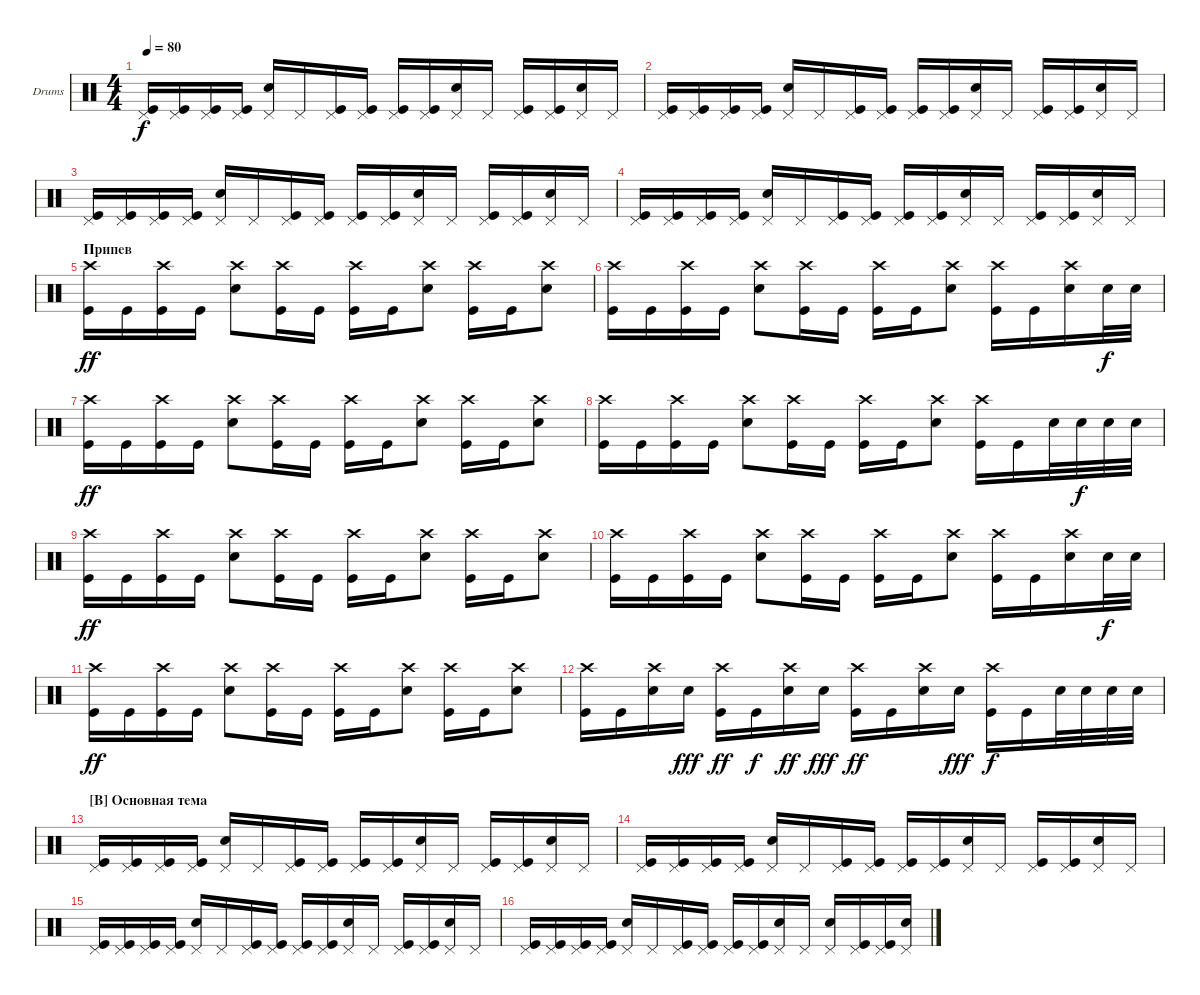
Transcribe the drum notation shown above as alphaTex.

\defaultSystemsLayout 4
\bracketExtendMode groupsimilarinstruments
\firstSystemTrackNameOrientation horizontal
\otherSystemsTrackNameOrientation horizontal
\track ("Drumkit" "Drums") {mute instrument percussion}
\staff {score}
\articulation defaults
\ts (4 4)
\tempo 80
\clef neutral
\ks c
("Pedal Hi-Hat (hit)" "Kick (hit)").16{dy f} ("Pedal Hi-Hat (hit)" "Kick (hit)").16 ("Pedal Hi-Hat (hit)" "Kick (hit)").16 ("Pedal Hi-Hat (hit)" "Kick (hit)").16 ("Pedal Hi-Hat (hit)" "Snare (hit) 2").16 "Pedal Hi-Hat (hit)".16 ("Pedal Hi-Hat (hit)" "Kick (hit)").16 ("Pedal Hi-Hat (hit)" "Kick (hit)").16 ("Pedal Hi-Hat (hit)" "Kick (hit)").16 ("Pedal Hi-Hat (hit)" "Kick (hit)").16 ("Pedal Hi-Hat (hit)" "Snare (hit) 2").16 "Pedal Hi-Hat (hit)".16 ("Pedal Hi-Hat (hit)" "Kick (hit)").16 ("Pedal Hi-Hat (hit)" "Kick (hit)").16 ("Pedal Hi-Hat (hit)" "Snare (hit) 2").16 "Pedal Hi-Hat (hit)".16 |
("Pedal Hi-Hat (hit)" "Kick (hit)").16 ("Pedal Hi-Hat (hit)" "Kick (hit)").16 ("Pedal Hi-Hat (hit)" "Kick (hit)").16 ("Pedal Hi-Hat (hit)" "Kick (hit)").16 ("Pedal Hi-Hat (hit)" "Snare (hit) 2").16 "Pedal Hi-Hat (hit)".16 ("Pedal Hi-Hat (hit)" "Kick (hit)").16 ("Pedal Hi-Hat (hit)" "Kick (hit)").16 ("Pedal Hi-Hat (hit)" "Kick (hit)").16 ("Pedal Hi-Hat (hit)" "Kick (hit)").16 ("Pedal Hi-Hat (hit)" "Snare (hit) 2").16 "Pedal Hi-Hat (hit)".16 ("Pedal Hi-Hat (hit)" "Kick (hit)").16 ("Pedal Hi-Hat (hit)" "Kick (hit)").16 ("Pedal Hi-Hat (hit)" "Snare (hit) 2").16 "Pedal Hi-Hat (hit)".16 |
("Pedal Hi-Hat (hit)" "Kick (hit)").16 ("Pedal Hi-Hat (hit)" "Kick (hit)").16 ("Pedal Hi-Hat (hit)" "Kick (hit)").16 ("Pedal Hi-Hat (hit)" "Kick (hit)").16 ("Pedal Hi-Hat (hit)" "Snare (hit) 2").16 "Pedal Hi-Hat (hit)".16 ("Pedal Hi-Hat (hit)" "Kick (hit)").16 ("Pedal Hi-Hat (hit)" "Kick (hit)").16 ("Pedal Hi-Hat (hit)" "Kick (hit)").16 ("Pedal Hi-Hat (hit)" "Kick (hit)").16 ("Pedal Hi-Hat (hit)" "Snare (hit) 2").16 "Pedal Hi-Hat (hit)".16 ("Pedal Hi-Hat (hit)" "Kick (hit)").16 ("Pedal Hi-Hat (hit)" "Kick (hit)").16 ("Pedal Hi-Hat (hit)" "Snare (hit) 2").16 "Pedal Hi-Hat (hit)".16 |
("Pedal Hi-Hat (hit)" "Kick (hit)").16 ("Pedal Hi-Hat (hit)" "Kick (hit)").16 ("Pedal Hi-Hat (hit)" "Kick (hit)").16 ("Pedal Hi-Hat (hit)" "Kick (hit)").16 ("Pedal Hi-Hat (hit)" "Snare (hit) 2").16 "Pedal Hi-Hat (hit)".16 ("Pedal Hi-Hat (hit)" "Kick (hit)").16 ("Pedal Hi-Hat (hit)" "Kick (hit)").16 ("Pedal Hi-Hat (hit)" "Kick (hit)").16 ("Pedal Hi-Hat (hit)" "Kick (hit)").16 ("Pedal Hi-Hat (hit)" "Snare (hit) 2").16 "Pedal Hi-Hat (hit)".16 ("Pedal Hi-Hat (hit)" "Kick (hit)").16 ("Pedal Hi-Hat (hit)" "Kick (hit)").16 ("Pedal Hi-Hat (hit)" "Snare (hit) 2").16 "Pedal Hi-Hat (hit)".16 |
\section ("" "Припев")
("Crash high (hit)" "Kick (hit)").16{dy ff} "Kick (hit)".16 ("Crash high (hit)" "Kick (hit)").16 "Kick (hit)".16 ("Crash high (hit)" "Snare (hit) 2").8 ("Crash high (hit)" "Kick (hit)").16 "Kick (hit)".16 ("Crash high (hit)" "Kick (hit)").16 "Kick (hit)".16 ("Crash high (hit)" "Snare (hit) 2").8 ("Crash high (hit)" "Kick (hit)").16 "Kick (hit)".16 ("Crash high (hit)" "Snare (hit) 2").8 |
("Crash high (hit)" "Kick (hit)").16 "Kick (hit)".16 ("Crash high (hit)" "Kick (hit)").16 "Kick (hit)".16 ("Crash high (hit)" "Snare (hit) 2").8 ("Crash high (hit)" "Kick (hit)").16 "Kick (hit)".16 ("Crash high (hit)" "Kick (hit)").16 "Kick (hit)".16 ("Crash high (hit)" "Snare (hit) 2").8 ("Crash high (hit)" "Kick (hit)").16 "Kick (hit)".16 ("Crash high (hit)" "Snare (hit) 2").16 "Snare (hit) 2".32{dy f} "Snare (hit) 2".32 |
("Crash high (hit)" "Kick (hit)").16{dy ff} "Kick (hit)".16 ("Crash high (hit)" "Kick (hit)").16 "Kick (hit)".16 ("Crash high (hit)" "Snare (hit) 2").8 ("Crash high (hit)" "Kick (hit)").16 "Kick (hit)".16 ("Crash high (hit)" "Kick (hit)").16 "Kick (hit)".16 ("Crash high (hit)" "Snare (hit) 2").8 ("Crash high (hit)" "Kick (hit)").16 "Kick (hit)".16 ("Crash high (hit)" "Snare (hit) 2").8 |
("Crash high (hit)" "Kick (hit)").16 "Kick (hit)".16 ("Crash high (hit)" "Kick (hit)").16 "Kick (hit)".16 ("Crash high (hit)" "Snare (hit) 2").8 ("Crash high (hit)" "Kick (hit)").16 "Kick (hit)".16 ("Crash high (hit)" "Kick (hit)").16 "Kick (hit)".16 ("Crash high (hit)" "Snare (hit) 2").8 ("Crash high (hit)" "Kick (hit)").16 "Kick (hit)".16 "Snare (hit) 2".32 "Snare (hit) 2".32{dy f} "Snare (hit) 2".32 "Snare (hit) 2".32 |
("Crash high (hit)" "Kick (hit)").16{dy ff} "Kick (hit)".16 ("Crash high (hit)" "Kick (hit)").16 "Kick (hit)".16 ("Crash high (hit)" "Snare (hit) 2").8 ("Crash high (hit)" "Kick (hit)").16 "Kick (hit)".16 ("Crash high (hit)" "Kick (hit)").16 "Kick (hit)".16 ("Crash high (hit)" "Snare (hit) 2").8 ("Crash high (hit)" "Kick (hit)").16 "Kick (hit)".16 ("Crash high (hit)" "Snare (hit) 2").8 |
("Crash high (hit)" "Kick (hit)").16 "Kick (hit)".16 ("Crash high (hit)" "Kick (hit)").16 "Kick (hit)".16 ("Crash high (hit)" "Snare (hit) 2").8 ("Crash high (hit)" "Kick (hit)").16 "Kick (hit)".16 ("Crash high (hit)" "Kick (hit)").16 "Kick (hit)".16 ("Crash high (hit)" "Snare (hit) 2").8 ("Crash high (hit)" "Kick (hit)").16 "Kick (hit)".16 ("Crash high (hit)" "Snare (hit) 2").16 "Snare (hit) 2".32{dy f} "Snare (hit) 2".32 |
("Crash high (hit)" "Kick (hit)").16{dy ff} "Kick (hit)".16 ("Crash high (hit)" "Kick (hit)").16 "Kick (hit)".16 ("Crash high (hit)" "Snare (hit) 2").8 ("Crash high (hit)" "Kick (hit)").16 "Kick (hit)".16 ("Crash high (hit)" "Kick (hit)").16 "Kick (hit)".16 ("Crash high (hit)" "Snare (hit) 2").8 ("Crash high (hit)" "Kick (hit)").16 "Kick (hit)".16 ("Crash high (hit)" "Snare (hit) 2").8 |
("Crash high (hit)" "Kick (hit)").16 "Kick (hit)".16 ("Crash high (hit)" "Snare (hit) 2").16 "Snare (hit) 2".16{dy fff} ("Crash high (hit)" "Kick (hit)").16{dy ff} "Kick (hit)".16{dy f} ("Crash high (hit)" "Snare (hit) 2").16{dy ff} "Snare (hit) 2".16{dy fff} ("Crash high (hit)" "Kick (hit)").16{dy ff} "Kick (hit)".16 ("Crash high (hit)" "Snare (hit) 2").16 "Snare (hit) 2".16{dy fff} ("Crash high (hit)" "Kick (hit)").16{dy f} "Kick (hit)".16 "Snare (hit) 2".32 "Snare (hit) 2".32 "Snare (hit) 2".32 "Snare (hit) 2".32 |
\section ("B" "Основная тема")
("Pedal Hi-Hat (hit)" "Kick (hit)").16 ("Pedal Hi-Hat (hit)" "Kick (hit)").16 ("Pedal Hi-Hat (hit)" "Kick (hit)").16 ("Pedal Hi-Hat (hit)" "Kick (hit)").16 ("Pedal Hi-Hat (hit)" "Snare (hit) 2").16 "Pedal Hi-Hat (hit)".16 ("Pedal Hi-Hat (hit)" "Kick (hit)").16 ("Pedal Hi-Hat (hit)" "Kick (hit)").16 ("Pedal Hi-Hat (hit)" "Kick (hit)").16 ("Pedal Hi-Hat (hit)" "Kick (hit)").16 ("Pedal Hi-Hat (hit)" "Snare (hit) 2").16 "Pedal Hi-Hat (hit)".16 ("Pedal Hi-Hat (hit)" "Kick (hit)").16 ("Pedal Hi-Hat (hit)" "Kick (hit)").16 ("Pedal Hi-Hat (hit)" "Snare (hit) 2").16 "Pedal Hi-Hat (hit)".16 |
("Pedal Hi-Hat (hit)" "Kick (hit)").16 ("Pedal Hi-Hat (hit)" "Kick (hit)").16 ("Pedal Hi-Hat (hit)" "Kick (hit)").16 ("Pedal Hi-Hat (hit)" "Kick (hit)").16 ("Pedal Hi-Hat (hit)" "Snare (hit) 2").16 "Pedal Hi-Hat (hit)".16 ("Pedal Hi-Hat (hit)" "Kick (hit)").16 ("Pedal Hi-Hat (hit)" "Kick (hit)").16 ("Pedal Hi-Hat (hit)" "Kick (hit)").16 ("Pedal Hi-Hat (hit)" "Kick (hit)").16 ("Pedal Hi-Hat (hit)" "Snare (hit) 2").16 "Pedal Hi-Hat (hit)".16 ("Pedal Hi-Hat (hit)" "Kick (hit)").16 ("Pedal Hi-Hat (hit)" "Kick (hit)").16 ("Pedal Hi-Hat (hit)" "Snare (hit) 2").16 "Pedal Hi-Hat (hit)".16 |
("Pedal Hi-Hat (hit)" "Kick (hit)").16 ("Pedal Hi-Hat (hit)" "Kick (hit)").16 ("Pedal Hi-Hat (hit)" "Kick (hit)").16 ("Pedal Hi-Hat (hit)" "Kick (hit)").16 ("Pedal Hi-Hat (hit)" "Snare (hit) 2").16 "Pedal Hi-Hat (hit)".16 ("Pedal Hi-Hat (hit)" "Kick (hit)").16 ("Pedal Hi-Hat (hit)" "Kick (hit)").16 ("Pedal Hi-Hat (hit)" "Kick (hit)").16 ("Pedal Hi-Hat (hit)" "Kick (hit)").16 ("Pedal Hi-Hat (hit)" "Snare (hit) 2").16 "Pedal Hi-Hat (hit)".16 ("Pedal Hi-Hat (hit)" "Kick (hit)").16 ("Pedal Hi-Hat (hit)" "Kick (hit)").16 ("Pedal Hi-Hat (hit)" "Snare (hit) 2").16 "Pedal Hi-Hat (hit)".16 |
("Pedal Hi-Hat (hit)" "Kick (hit)").16 ("Pedal Hi-Hat (hit)" "Kick (hit)").16 ("Pedal Hi-Hat (hit)" "Kick (hit)").16 ("Pedal Hi-Hat (hit)" "Kick (hit)").16 ("Pedal Hi-Hat (hit)" "Snare (hit) 2").16 "Pedal Hi-Hat (hit)".16 ("Pedal Hi-Hat (hit)" "Kick (hit)").16 ("Pedal Hi-Hat (hit)" "Kick (hit)").16 ("Pedal Hi-Hat (hit)" "Kick (hit)").16 ("Pedal Hi-Hat (hit)" "Kick (hit)").16 ("Pedal Hi-Hat (hit)" "Snare (hit) 2").16 "Pedal Hi-Hat (hit)".16 ("Pedal Hi-Hat (hit)" "Snare (hit) 2").16 ("Pedal Hi-Hat (hit)" "Kick (hit)").16 ("Pedal Hi-Hat (hit)" "Kick (hit)").16 ("Pedal Hi-Hat (hit)" "Snare (hit) 2").16
